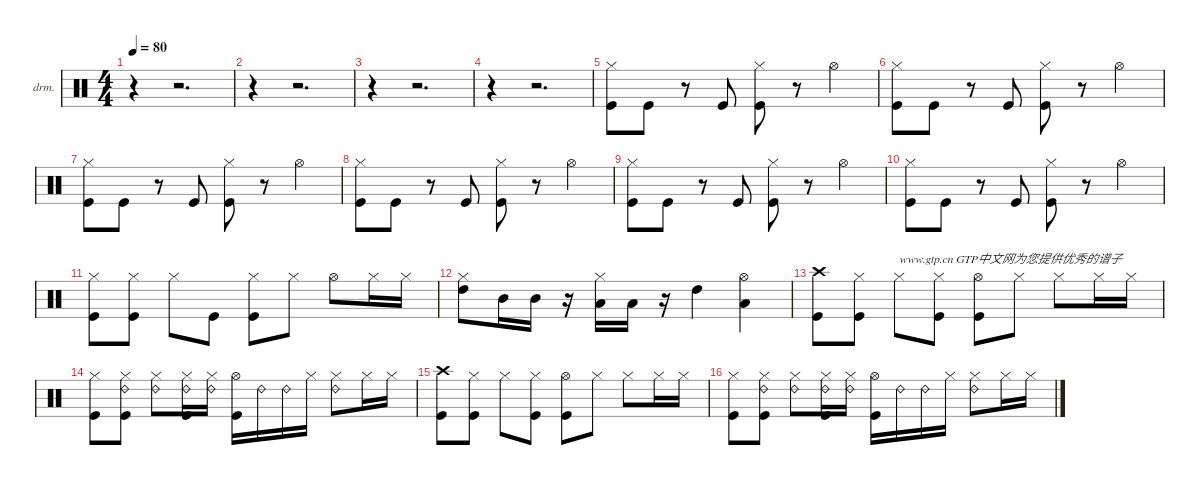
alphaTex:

\defaultSystemsLayout 4
\hideDynamics
\bracketExtendMode groupsimilarinstruments
\firstSystemTrackNameOrientation horizontal
\otherSystemsTrackNameOrientation horizontal
\track ("drum" "drm.") {instrument percussion}
\staff {score}
\articulation defaults
\ts (4 4)
\tempo 80
\clef neutral
\ks c
r.4{dy f} r.2{d} |
r.4 r.2{d} |
r.4 r.2{d} |
r.4 r.2{d} |
("Hi-Hat (closed)" "Kick (hit)").8 "Kick (hit)".8 r.8 "Kick (hit)".8 ("Hi-Hat (closed)" "Kick (hit)").8 r.8 "Hi-Hat (open)".4 |
("Hi-Hat (closed)" "Kick (hit)").8 "Kick (hit)".8 r.8 "Kick (hit)".8 ("Hi-Hat (closed)" "Kick (hit)").8 r.8 "Hi-Hat (open)".4 |
("Hi-Hat (closed)" "Kick (hit)").8 "Kick (hit)".8 r.8 "Kick (hit)".8 ("Hi-Hat (closed)" "Kick (hit)").8 r.8 "Hi-Hat (open)".4 |
("Hi-Hat (closed)" "Kick (hit)").8 "Kick (hit)".8 r.8 "Kick (hit)".8 ("Hi-Hat (closed)" "Kick (hit)").8 r.8 "Hi-Hat (open)".4 |
("Hi-Hat (closed)" "Kick (hit)").8 "Kick (hit)".8 r.8 "Kick (hit)".8 ("Hi-Hat (closed)" "Kick (hit)").8 r.8 "Hi-Hat (open)".4 |
("Hi-Hat (closed)" "Kick (hit)").8 "Kick (hit)".8 r.8 "Kick (hit)".8 ("Hi-Hat (closed)" "Kick (hit)").8 r.8 "Hi-Hat (open)".4 |
("Hi-Hat (closed)" "Kick (hit)").8 ("Hi-Hat (closed)" "Kick (hit)").8 "Hi-Hat (closed)".8 "Kick (hit)".8 ("Hi-Hat (closed)" "Kick (hit)").8 "Hi-Hat (closed)".8 "Hi-Hat (open)".8 "Hi-Hat (closed)".16 "Hi-Hat (closed)".16 |
("Hi-Hat (closed)" "High Tom (hit)").8 "Mid Tom (hit)".16 "Mid Tom (hit)".16 r.16 ("Hi-Hat (closed)" "Low Tom (hit)").16 "Low Tom (hit)".16 r.16 "High Tom (hit)".4 ("Hi-Hat (open)" "Low Tom (hit)").4 |
("Crash high (hit)" "Kick (hit)").8 ("Hi-Hat (closed)" "Kick (hit)").8 "Hi-Hat (closed)".8{txt "www.gtp.cn GTP中文网为您提供优秀的谱子"} ("Hi-Hat (closed)" "Kick (hit)").8 ("Hi-Hat (open)" "Kick (hit)").8 "Hi-Hat (closed)".8 "Hi-Hat (closed)".8 "Hi-Hat (closed)".16 "Hi-Hat (closed)".16 |
("Hi-Hat (closed)" "Kick (hit)").8 ("Hi-Hat (closed)" "Kick (hit)" "Ride (bell) 2").8 ("Hi-Hat (closed)" "Ride (bell) 2").8 ("Hi-Hat (closed)" "Kick (hit)" "Ride (bell) 2").16 ("Hi-Hat (closed)" "Ride (bell) 2").16 ("Hi-Hat (open)" "Kick (hit)").16 "Ride (bell) 2".16 "Ride (bell) 2".16 "Hi-Hat (closed)".16 ("Hi-Hat (closed)" "Ride (bell) 2").8 "Hi-Hat (closed)".16 "Hi-Hat (closed)".16 |
("Crash high (hit)" "Kick (hit)").8 ("Hi-Hat (closed)" "Kick (hit)").8 "Hi-Hat (closed)".8 ("Hi-Hat (closed)" "Kick (hit)").8 ("Hi-Hat (open)" "Kick (hit)").8 "Hi-Hat (closed)".8 "Hi-Hat (closed)".8 "Hi-Hat (closed)".16 "Hi-Hat (closed)".16 |
("Hi-Hat (closed)" "Kick (hit)").8 ("Hi-Hat (closed)" "Kick (hit)" "Ride (bell) 2").8 ("Hi-Hat (closed)" "Ride (bell) 2").8 ("Hi-Hat (closed)" "Kick (hit)" "Ride (bell) 2").16 ("Hi-Hat (closed)" "Ride (bell) 2").16 ("Hi-Hat (open)" "Kick (hit)").16 "Ride (bell) 2".16 "Ride (bell) 2".16 "Hi-Hat (closed)".16 ("Hi-Hat (closed)" "Ride (bell) 2").8 "Hi-Hat (closed)".16 "Hi-Hat (closed)".16
